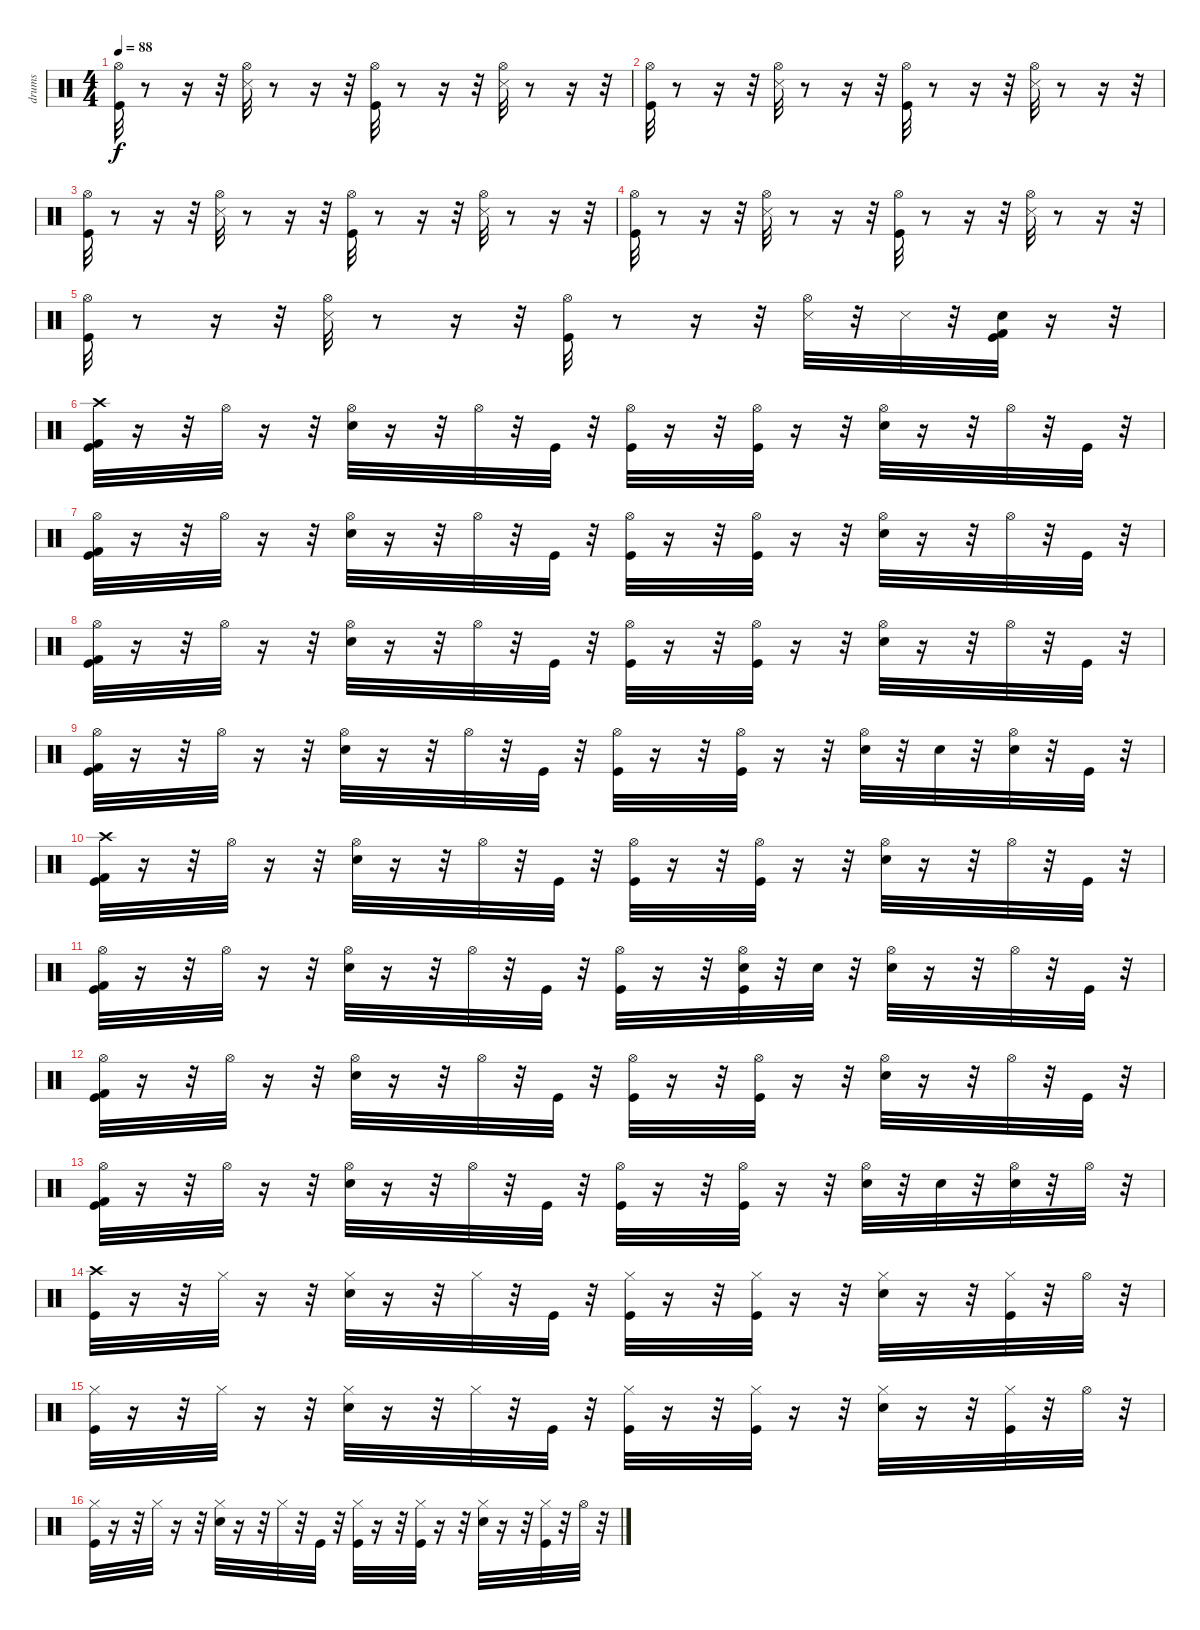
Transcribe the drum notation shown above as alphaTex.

\track ("drums" "drums") {instrument percussion}
\staff {score}
\articulation defaults
\ts (4 4)
\tempo 88
\clef neutral
\ks c
("Kick (hit)" "Hi-Hat (open)").32{dy f} r.8 r.16 r.32 ("Snare (side stick) 3" "Hi-Hat (open)").32 r.8 r.16 r.32 ("Kick (hit)" "Hi-Hat (open)").32 r.8 r.16 r.32 ("Snare (side stick) 3" "Hi-Hat (open)").32 r.8 r.16 r.32 |
("Kick (hit)" "Hi-Hat (open)").32 r.8 r.16 r.32 ("Snare (side stick) 3" "Hi-Hat (open)").32 r.8 r.16 r.32 ("Kick (hit)" "Hi-Hat (open)").32 r.8 r.16 r.32 ("Snare (side stick) 3" "Hi-Hat (open)").32 r.8 r.16 r.32 |
("Kick (hit)" "Hi-Hat (open)").32 r.8 r.16 r.32 ("Snare (side stick) 3" "Hi-Hat (open)").32 r.8 r.16 r.32 ("Kick (hit)" "Hi-Hat (open)").32 r.8 r.16 r.32 ("Snare (side stick) 3" "Hi-Hat (open)").32 r.8 r.16 r.32 |
("Kick (hit)" "Hi-Hat (open)").32 r.8 r.16 r.32 ("Snare (side stick) 3" "Hi-Hat (open)").32 r.8 r.16 r.32 ("Kick (hit)" "Hi-Hat (open)").32 r.8 r.16 r.32 ("Snare (side stick) 3" "Hi-Hat (open)").32 r.8 r.16 r.32 |
("Kick (hit)" "Hi-Hat (open)").32 r.8 r.16 r.32 ("Snare (side stick) 3" "Hi-Hat (open)").32 r.8 r.16 r.32 ("Kick (hit)" "Hi-Hat (open)").32 r.8 r.16 r.32 ("Snare (side stick) 3" "Hi-Hat (open)").32 r.32 "Snare (side stick) 3".32 r.32 ("Snare (hit) 2" "Kick (hit) 2" "Kick (hit)").32 r.16 r.32 |
("Crash high (hit)" "Kick (hit)" "Kick (hit) 2").32 r.16 r.32 "Hi-Hat (open)".32 r.16 r.32 ("Hi-Hat (open)" "Snare (hit) 2").32 r.16 r.32 "Hi-Hat (open)".32 r.32 "Kick (hit)".32 r.32 ("Hi-Hat (open)" "Kick (hit)").32 r.16 r.32 ("Hi-Hat (open)" "Kick (hit)").32 r.16 r.32 ("Hi-Hat (open)" "Snare (hit) 2").32 r.16 r.32 "Hi-Hat (open)".32 r.32 "Kick (hit)".32 r.32 |
("Hi-Hat (open)" "Kick (hit)" "Kick (hit) 2").32 r.16 r.32 "Hi-Hat (open)".32 r.16 r.32 ("Hi-Hat (open)" "Snare (hit) 2").32 r.16 r.32 "Hi-Hat (open)".32 r.32 "Kick (hit)".32 r.32 ("Hi-Hat (open)" "Kick (hit)").32 r.16 r.32 ("Hi-Hat (open)" "Kick (hit)").32 r.16 r.32 ("Hi-Hat (open)" "Snare (hit) 2").32 r.16 r.32 "Hi-Hat (open)".32 r.32 "Kick (hit)".32 r.32 |
("Hi-Hat (open)" "Kick (hit)" "Kick (hit) 2").32 r.16 r.32 "Hi-Hat (open)".32 r.16 r.32 ("Hi-Hat (open)" "Snare (hit) 2").32 r.16 r.32 "Hi-Hat (open)".32 r.32 "Kick (hit)".32 r.32 ("Hi-Hat (open)" "Kick (hit)").32 r.16 r.32 ("Hi-Hat (open)" "Kick (hit)").32 r.16 r.32 ("Hi-Hat (open)" "Snare (hit) 2").32 r.16 r.32 "Hi-Hat (open)".32 r.32 "Kick (hit)".32 r.32 |
("Hi-Hat (open)" "Kick (hit)" "Kick (hit) 2").32 r.16 r.32 "Hi-Hat (open)".32 r.16 r.32 ("Hi-Hat (open)" "Snare (hit) 2").32 r.16 r.32 "Hi-Hat (open)".32 r.32 "Kick (hit)".32 r.32 ("Hi-Hat (open)" "Kick (hit)").32 r.16 r.32 ("Hi-Hat (open)" "Kick (hit)").32 r.16 r.32 ("Hi-Hat (open)" "Snare (hit) 2").32 r.32 "Snare (hit) 2".32 r.32 ("Snare (hit) 2" "Hi-Hat (open)").32 r.32 "Kick (hit)".32 r.32 |
("Crash high (hit)" "Kick (hit)" "Kick (hit) 2").32 r.16 r.32 "Hi-Hat (open)".32 r.16 r.32 ("Hi-Hat (open)" "Snare (hit) 2").32 r.16 r.32 "Hi-Hat (open)".32 r.32 "Kick (hit)".32 r.32 ("Hi-Hat (open)" "Kick (hit)").32 r.16 r.32 ("Hi-Hat (open)" "Kick (hit)").32 r.16 r.32 ("Hi-Hat (open)" "Snare (hit) 2").32 r.16 r.32 "Hi-Hat (open)".32 r.32 "Kick (hit)".32 r.32 |
("Hi-Hat (open)" "Kick (hit)" "Kick (hit) 2").32 r.16 r.32 "Hi-Hat (open)".32 r.16 r.32 ("Hi-Hat (open)" "Snare (hit) 2").32 r.16 r.32 "Hi-Hat (open)".32 r.32 "Kick (hit)".32 r.32 ("Hi-Hat (open)" "Kick (hit)").32 r.16 r.32 ("Snare (hit) 2" "Hi-Hat (open)" "Kick (hit)").32 r.32 "Snare (hit) 2".32 r.32 ("Hi-Hat (open)" "Snare (hit) 2").32 r.16 r.32 "Hi-Hat (open)".32 r.32 "Kick (hit)".32 r.32 |
("Hi-Hat (open)" "Kick (hit)" "Kick (hit) 2").32 r.16 r.32 "Hi-Hat (open)".32 r.16 r.32 ("Hi-Hat (open)" "Snare (hit) 2").32 r.16 r.32 "Hi-Hat (open)".32 r.32 "Kick (hit)".32 r.32 ("Hi-Hat (open)" "Kick (hit)").32 r.16 r.32 ("Hi-Hat (open)" "Kick (hit)").32 r.16 r.32 ("Hi-Hat (open)" "Snare (hit) 2").32 r.16 r.32 "Hi-Hat (open)".32 r.32 "Kick (hit)".32 r.32 |
("Hi-Hat (open)" "Kick (hit)" "Kick (hit) 2").32 r.16 r.32 "Hi-Hat (open)".32 r.16 r.32 ("Hi-Hat (open)" "Snare (hit) 2").32 r.16 r.32 "Hi-Hat (open)".32 r.32 "Kick (hit)".32 r.32 ("Hi-Hat (open)" "Kick (hit)").32 r.16 r.32 ("Hi-Hat (open)" "Kick (hit)").32 r.16 r.32 ("Hi-Hat (open)" "Snare (hit) 2").32 r.32 "Snare (hit) 2".32 r.32 ("Snare (hit) 2" "Hi-Hat (open)").32 r.32 "Hi-Hat (open)".32 r.32 |
("Crash high (hit)" "Kick (hit)").32 r.16 r.32 "Hi-Hat (closed)".32 r.16 r.32 ("Hi-Hat (closed)" "Snare (hit) 2").32 r.16 r.32 "Hi-Hat (closed)".32 r.32 "Kick (hit)".32 r.32 ("Hi-Hat (closed)" "Kick (hit)").32 r.16 r.32 ("Hi-Hat (closed)" "Kick (hit)").32 r.16 r.32 ("Snare (hit) 2" "Hi-Hat (closed)").32 r.16 r.32 ("Kick (hit)" "Hi-Hat (closed)").32 r.32 "Hi-Hat (open)".32 r.32 |
("Hi-Hat (closed)" "Kick (hit)").32 r.16 r.32 "Hi-Hat (closed)".32 r.16 r.32 ("Hi-Hat (closed)" "Snare (hit) 2").32 r.16 r.32 "Hi-Hat (closed)".32 r.32 "Kick (hit)".32 r.32 ("Hi-Hat (closed)" "Kick (hit)").32 r.16 r.32 ("Hi-Hat (closed)" "Kick (hit)").32 r.16 r.32 ("Snare (hit) 2" "Hi-Hat (closed)").32 r.16 r.32 ("Kick (hit)" "Hi-Hat (closed)").32 r.32 "Hi-Hat (open)".32 r.32 |
("Hi-Hat (closed)" "Kick (hit)").32 r.16 r.32 "Hi-Hat (closed)".32 r.16 r.32 ("Hi-Hat (closed)" "Snare (hit) 2").32 r.16 r.32 "Hi-Hat (closed)".32 r.32 "Kick (hit)".32 r.32 ("Hi-Hat (closed)" "Kick (hit)").32 r.16 r.32 ("Hi-Hat (closed)" "Kick (hit)").32 r.16 r.32 ("Snare (hit) 2" "Hi-Hat (closed)").32 r.16 r.32 ("Kick (hit)" "Hi-Hat (closed)").32 r.32 "Hi-Hat (open)".32 r.32
